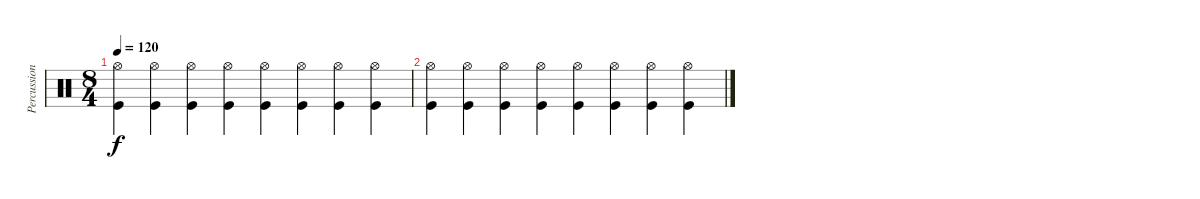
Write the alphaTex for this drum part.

\track ("Percussioni" "Percussion") {instrument percussion}
\staff {score}
\articulation defaults
\ts (8 4)
\tempo 120
\clef neutral
\ks c
("Hi-Hat (open)" "Kick (hit)").4{dy f} ("Hi-Hat (open)" "Kick (hit)").4 ("Hi-Hat (open)" "Kick (hit)").4 ("Hi-Hat (open)" "Kick (hit)").4 ("Hi-Hat (open)" "Kick (hit)").4 ("Hi-Hat (open)" "Kick (hit)").4 ("Hi-Hat (open)" "Kick (hit)").4 ("Hi-Hat (open)" "Kick (hit)").4 |
("Hi-Hat (open)" "Kick (hit)").4 ("Hi-Hat (open)" "Kick (hit)").4 ("Hi-Hat (open)" "Kick (hit)").4 ("Hi-Hat (open)" "Kick (hit)").4 ("Hi-Hat (open)" "Kick (hit)").4 ("Hi-Hat (open)" "Kick (hit)").4 ("Hi-Hat (open)" "Kick (hit)").4 ("Hi-Hat (open)" "Kick (hit)").4
